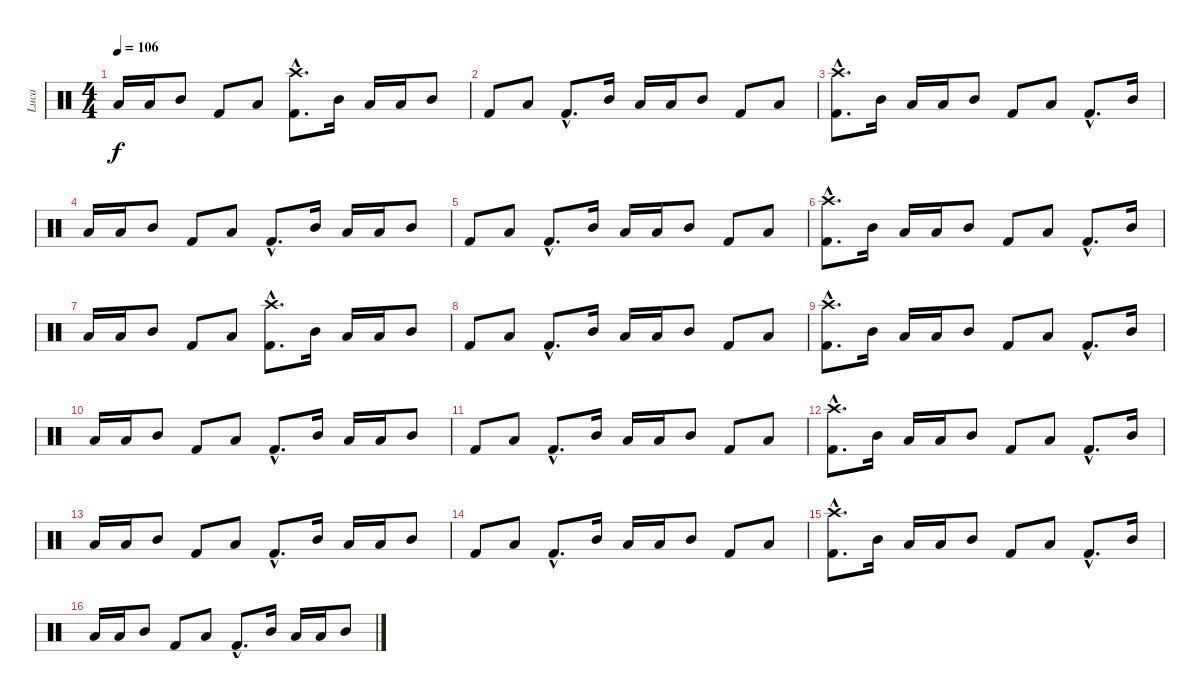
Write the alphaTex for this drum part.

\track ("Luca" "Luca") {instrument percussion}
\staff {score}
\articulation defaults
\ts (4 4)
\tempo 106
\clef neutral
\ks c "Low Floor Tom (hit)".16{dy f} "Low Floor Tom (hit)".16 "Mid Tom (hit)".8 "Kick (hit) 2".8 "Low Floor Tom (hit)".8
("Crash high (hit)"{hac} "Kick (hit) 2"{hac}).8{d} "Mid Tom (hit)".16 "Low Floor Tom (hit)".16 "Low Floor Tom (hit)".16 "Mid Tom (hit)".8 |
"Kick (hit) 2".8 "Low Floor Tom (hit)".8 "Kick (hit) 2"{hac}.8{d} "Mid Tom (hit)".16 "Low Floor Tom (hit)".16 "Low Floor Tom (hit)".16 "Mid Tom (hit)".8 "Kick (hit) 2".8 "Low Floor Tom (hit)".8 |
("Crash high (hit)"{hac} "Kick (hit) 2"{hac}).8{d} "Mid Tom (hit)".16 "Low Floor Tom (hit)".16 "Low Floor Tom (hit)".16 "Mid Tom (hit)".8 "Kick (hit) 2".8 "Low Floor Tom (hit)".8 "Kick (hit) 2"{hac}.8{d} "Mid Tom (hit)".16 |
"Low Floor Tom (hit)".16 "Low Floor Tom (hit)".16 "Mid Tom (hit)".8 "Kick (hit) 2".8 "Low Floor Tom (hit)".8 "Kick (hit) 2"{hac}.8{d} "Mid Tom (hit)".16 "Low Floor Tom (hit)".16 "Low Floor Tom (hit)".16 "Mid Tom (hit)".8 |
"Kick (hit) 2".8 "Low Floor Tom (hit)".8 "Kick (hit) 2"{hac}.8{d} "Mid Tom (hit)".16 "Low Floor Tom (hit)".16 "Low Floor Tom (hit)".16 "Mid Tom (hit)".8 "Kick (hit) 2".8 "Low Floor Tom (hit)".8 |
("Crash high (hit)"{hac} "Kick (hit) 2"{hac}).8{d} "Mid Tom (hit)".16 "Low Floor Tom (hit)".16 "Low Floor Tom (hit)".16 "Mid Tom (hit)".8 "Kick (hit) 2".8 "Low Floor Tom (hit)".8 "Kick (hit) 2"{hac}.8{d} "Mid Tom (hit)".16 |
"Low Floor Tom (hit)".16 "Low Floor Tom (hit)".16 "Mid Tom (hit)".8 "Kick (hit) 2".8 "Low Floor Tom (hit)".8 ("Crash high (hit)"{hac} "Kick (hit) 2"{hac}).8{d} "Mid Tom (hit)".16 "Low Floor Tom (hit)".16 "Low Floor Tom (hit)".16 "Mid Tom (hit)".8 |
"Kick (hit) 2".8 "Low Floor Tom (hit)".8 "Kick (hit) 2"{hac}.8{d} "Mid Tom (hit)".16 "Low Floor Tom (hit)".16 "Low Floor Tom (hit)".16 "Mid Tom (hit)".8 "Kick (hit) 2".8 "Low Floor Tom (hit)".8 |
("Crash high (hit)"{hac} "Kick (hit) 2"{hac}).8{d} "Mid Tom (hit)".16 "Low Floor Tom (hit)".16 "Low Floor Tom (hit)".16 "Mid Tom (hit)".8 "Kick (hit) 2".8 "Low Floor Tom (hit)".8 "Kick (hit) 2"{hac}.8{d} "Mid Tom (hit)".16 |
"Low Floor Tom (hit)".16 "Low Floor Tom (hit)".16 "Mid Tom (hit)".8 "Kick (hit) 2".8 "Low Floor Tom (hit)".8 "Kick (hit) 2"{hac}.8{d} "Mid Tom (hit)".16 "Low Floor Tom (hit)".16 "Low Floor Tom (hit)".16 "Mid Tom (hit)".8 |
"Kick (hit) 2".8 "Low Floor Tom (hit)".8 "Kick (hit) 2"{hac}.8{d} "Mid Tom (hit)".16 "Low Floor Tom (hit)".16 "Low Floor Tom (hit)".16 "Mid Tom (hit)".8 "Kick (hit) 2".8 "Low Floor Tom (hit)".8 |
("Crash high (hit)"{hac} "Kick (hit) 2"{hac}).8{d} "Mid Tom (hit)".16 "Low Floor Tom (hit)".16 "Low Floor Tom (hit)".16 "Mid Tom (hit)".8 "Kick (hit) 2".8 "Low Floor Tom (hit)".8 "Kick (hit) 2"{hac}.8{d} "Mid Tom (hit)".16 |
"Low Floor Tom (hit)".16 "Low Floor Tom (hit)".16 "Mid Tom (hit)".8 "Kick (hit) 2".8 "Low Floor Tom (hit)".8 "Kick (hit) 2"{hac}.8{d} "Mid Tom (hit)".16 "Low Floor Tom (hit)".16 "Low Floor Tom (hit)".16 "Mid Tom (hit)".8 |
"Kick (hit) 2".8 "Low Floor Tom (hit)".8 "Kick (hit) 2"{hac}.8{d} "Mid Tom (hit)".16 "Low Floor Tom (hit)".16 "Low Floor Tom (hit)".16 "Mid Tom (hit)".8 "Kick (hit) 2".8 "Low Floor Tom (hit)".8 |
("Crash high (hit)"{hac} "Kick (hit) 2"{hac}).8{d} "Mid Tom (hit)".16 "Low Floor Tom (hit)".16 "Low Floor Tom (hit)".16 "Mid Tom (hit)".8 "Kick (hit) 2".8 "Low Floor Tom (hit)".8 "Kick (hit) 2"{hac}.8{d} "Mid Tom (hit)".16 |
"Low Floor Tom (hit)".16 "Low Floor Tom (hit)".16 "Mid Tom (hit)".8 "Kick (hit) 2".8 "Low Floor Tom (hit)".8 "Kick (hit) 2"{hac}.8{d} "Mid Tom (hit)".16 "Low Floor Tom (hit)".16 "Low Floor Tom (hit)".16 "Mid Tom (hit)".8
